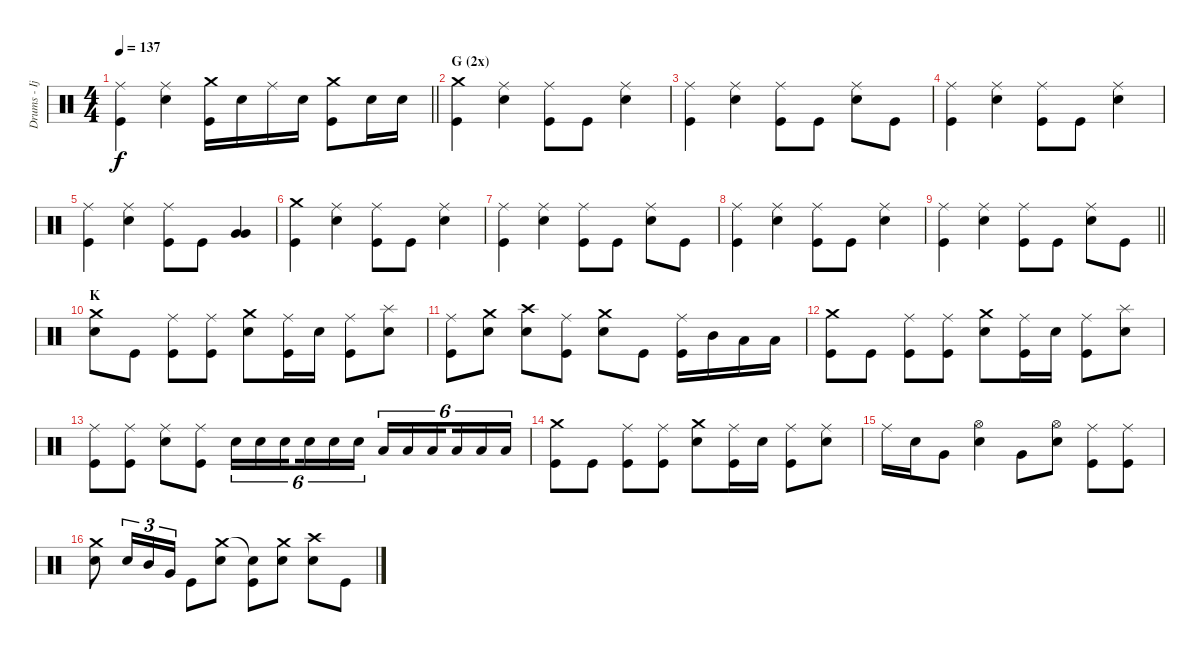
\track ("Drums - Ijichi" "Drums - Ij") {instrument percussion}
\staff {score}
\articulation defaults
\ts (4 4)
\tempo 137
\clef neutral
\barLineRight lightlight
\ks c
("Ride (middle)" "Kick (hit)").4{dy f} ("Ride (middle)" "Electric Snare (hit)").4 ("Crash medium (hit)" "Kick (hit)").16 "Electric Snare (hit)".16 "Ride (middle)".16 "Electric Snare (hit)".16 ("Crash medium (hit)" "Kick (hit)").8 "Electric Snare (hit)".16 "Electric Snare (hit)".16 |
\section ("" "G (2x)")
("Crash medium (hit)" "Kick (hit)").4 ("Ride (middle)" "Electric Snare (hit)").4 ("Ride (middle)" "Kick (hit)").8 "Kick (hit)".8 ("Ride (middle)" "Electric Snare (hit)").4 |
("Ride (middle)" "Kick (hit)").4 ("Ride (middle)" "Electric Snare (hit)").4 ("Ride (middle)" "Kick (hit)").8 "Kick (hit)".8 ("Ride (middle)" "Electric Snare (hit)").8 "Kick (hit)".8 |
("Ride (middle)" "Kick (hit)").4 ("Ride (middle)" "Electric Snare (hit)").4 ("Ride (middle)" "Kick (hit)").8 "Kick (hit)".8 ("Ride (middle)" "Electric Snare (hit)").4 |
("Ride (middle)" "Kick (hit)").4 ("Ride (middle)" "Electric Snare (hit)").4 ("Ride (middle)" "Kick (hit)").8 "Kick (hit)".8 ("Very Low Tom (hit)" "Very Low Tom (hit)").4 |
("Crash medium (hit)" "Kick (hit)").4 ("Ride (middle)" "Electric Snare (hit)").4 ("Ride (middle)" "Kick (hit)").8 "Kick (hit)".8 ("Ride (middle)" "Electric Snare (hit)").4 |
("Ride (middle)" "Kick (hit)").4 ("Ride (middle)" "Electric Snare (hit)").4 ("Ride (middle)" "Kick (hit)").8 "Kick (hit)".8 ("Ride (middle)" "Electric Snare (hit)").8 "Kick (hit)".8 |
("Ride (middle)" "Kick (hit)").4 ("Ride (middle)" "Electric Snare (hit)").4 ("Ride (middle)" "Kick (hit)").8 "Kick (hit)".8 ("Ride (middle)" "Electric Snare (hit)").4 |
\barLineRight lightlight
("Ride (middle)" "Kick (hit)").4 ("Ride (middle)" "Electric Snare (hit)").4 ("Ride (middle)" "Kick (hit)").8 "Kick (hit)".8 ("Ride (middle)" "Electric Snare (hit)").8 "Kick (hit)".8 |
\section ("" "K")
("Crash medium (hit)" "Electric Snare (hit)").8 "Kick (hit)".8 ("Ride (middle)" "Kick (hit)").8 ("Ride (middle)" "Kick (hit)").8 ("Crash medium (hit)" "Electric Snare (hit)").8 ("Ride (middle)" "Kick (hit)").16 "Electric Snare (hit)".16 ("Ride (middle)" "Kick (hit)").8 ("Splash (hit)" "Electric Snare (hit)").8 |
("Ride (middle)" "Kick (hit)").8 ("Crash medium (hit)" "Electric Snare (hit)").8 ("Crash high (hit)" "Electric Snare (hit)").8 ("Ride (middle)" "Kick (hit)").8 ("Crash medium (hit)" "Electric Snare (hit)").8 "Kick (hit)".8 ("Ride (middle)" "Kick (hit)").16 "Mid Tom (hit)".16 "Low Tom (hit)".16 "Low Tom (hit)".16 |
("Crash medium (hit)" "Kick (hit)").8 "Kick (hit)".8 ("Ride (middle)" "Kick (hit)").8 ("Ride (middle)" "Kick (hit)").8 ("Crash medium (hit)" "Electric Snare (hit)").8 ("Ride (middle)" "Kick (hit)").16 "Electric Snare (hit)".16 ("Ride (middle)" "Kick (hit)").8 ("Splash (hit)" "Electric Snare (hit)").8 |
("Ride (middle)" "Kick (hit)").8 ("Ride (middle)" "Kick (hit)").8 ("Ride (middle)" "Electric Snare (hit)").8 ("Ride (middle)" "Kick (hit)").8 "Electric Snare (hit)".16{tu (6 4)} "Electric Snare (hit)".16{tu (6 4)} "Electric Snare (hit)".16{tu (6 4) beam splitsecondary} "Electric Snare (hit)".16{tu (6 4)} "Electric Snare (hit)".16{tu (6 4)} "Electric Snare (hit)".16{tu (6 4)} "Low Tom (hit)".16{tu (6 4)} "Low Tom (hit)".16{tu (6 4)} "Low Tom (hit)".16{tu (6 4) beam splitsecondary} "Low Tom (hit)".16{tu (6 4)} "Low Tom (hit)".16{tu (6 4)} "Low Tom (hit)".16{tu (6 4)} |
("Crash medium (hit)" "Kick (hit)").8 "Kick (hit)".8 ("Ride (middle)" "Kick (hit)").8 ("Ride (middle)" "Kick (hit)").8 ("Crash medium (hit)" "Electric Snare (hit)").8 ("Ride (middle)" "Kick (hit)").16 "Electric Snare (hit)".16 ("Ride (middle)" "Kick (hit)").8 ("Ride (middle)" "Electric Snare (hit)").8 |
"Ride (middle)".16 "Electric Snare (hit)".16 "Very Low Tom (hit)".8 ("Hi-Hat (open)" "Electric Snare (hit)").4 "Very Low Tom (hit)".8 ("Hi-Hat (open)" "Electric Snare (hit)").8 ("Ride (middle)" "Kick (hit)").8 ("Ride (middle)" "Kick (hit)").8 |
("Crash medium (hit)" "Electric Snare (hit)").8 "Electric Snare (hit)".16{tu (3 2)} "Mid Tom (hit)".16{tu (3 2)} "Very Low Tom (hit)".16{tu (3 2)} "Kick (hit)".8 ("Crash medium (hit)" "Electric Snare (hit)").8 ("Snare (hit)"{t} "Kick (hit)").8 ("Crash medium (hit)" "Electric Snare (hit)").8 ("Crash high (hit)" "Electric Snare (hit)").8 "Kick (hit)".8
